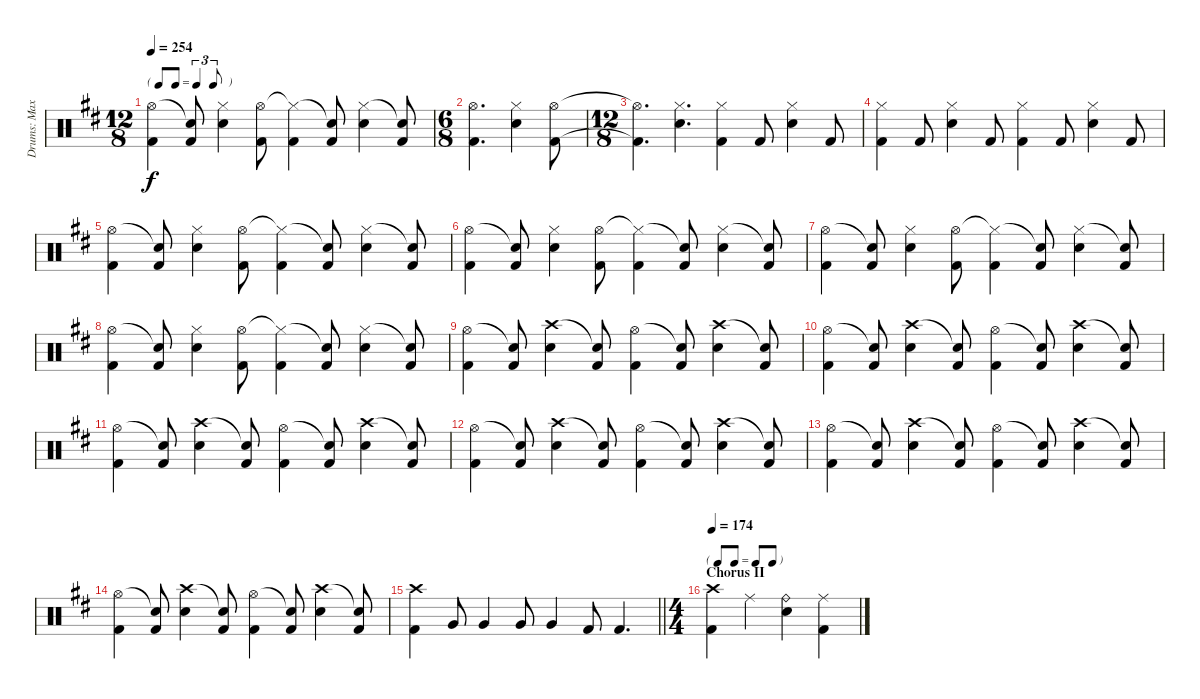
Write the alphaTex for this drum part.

\track ("Drums: Max" "Drums: Max") {instrument percussion}
\staff {score}
\articulation defaults
\ts (12 8)
\tf triplet8th
\tempo 254
\clef neutral
\ks d
("Hi-Hat (open)" "Kick (hit) 2").4{dy f} ("Snare (hit)"{t} "Kick (hit) 2").8 ("Hi-Hat (closed)" "Electric Snare (hit)").4 ("Hi-Hat (open)" "Kick (hit) 2").8 ("Hi-Hat (closed)"{t} "Kick (hit) 2").4 ("Snare (hit)"{t} "Kick (hit) 2").8 ("Hi-Hat (closed)" "Electric Snare (hit)").4 ("Snare (hit)"{t} "Kick (hit) 2").8 |
\ts (6 8)
("Hi-Hat (open)" "Kick (hit) 2").4{d} ("Hi-Hat (closed)" "Electric Snare (hit)").4 ("Hi-Hat (open)" "Kick (hit) 2").8 |
\ts (12 8)
("Hi-Hat (open)"{t} "Kick (hit) 2"{t}).4{d} ("Hi-Hat (closed)" "Electric Snare (hit)").4{d} ("Hi-Hat (closed)" "Kick (hit) 2").4 "Kick (hit) 2".8 ("Hi-Hat (closed)" "Electric Snare (hit)").4 "Kick (hit) 2".8 |
("Hi-Hat (closed)" "Kick (hit) 2").4 "Kick (hit) 2".8 ("Hi-Hat (closed)" "Electric Snare (hit)").4 "Kick (hit) 2".8 ("Hi-Hat (closed)" "Kick (hit) 2").4 "Kick (hit) 2".8 ("Hi-Hat (closed)" "Electric Snare (hit)").4 "Kick (hit) 2".8 |
("Hi-Hat (open)" "Kick (hit) 2").4 ("Snare (hit)"{t} "Kick (hit) 2").8 ("Hi-Hat (closed)" "Electric Snare (hit)").4 ("Hi-Hat (open)" "Kick (hit) 2").8 ("Hi-Hat (closed)"{t} "Kick (hit) 2").4 ("Snare (hit)"{t} "Kick (hit) 2").8 ("Hi-Hat (closed)" "Electric Snare (hit)").4 ("Snare (hit)"{t} "Kick (hit) 2").8 |
("Hi-Hat (open)" "Kick (hit) 2").4 ("Snare (hit)"{t} "Kick (hit) 2").8 ("Hi-Hat (closed)" "Electric Snare (hit)").4 ("Hi-Hat (open)" "Kick (hit) 2").8 ("Hi-Hat (closed)"{t} "Kick (hit) 2").4 ("Snare (hit)"{t} "Kick (hit) 2").8 ("Hi-Hat (closed)" "Electric Snare (hit)").4 ("Snare (hit)"{t} "Kick (hit) 2").8 |
("Hi-Hat (open)" "Kick (hit) 2").4 ("Snare (hit)"{t} "Kick (hit) 2").8 ("Hi-Hat (closed)" "Electric Snare (hit)").4 ("Hi-Hat (open)" "Kick (hit) 2").8 ("Hi-Hat (closed)"{t} "Kick (hit) 2").4 ("Snare (hit)"{t} "Kick (hit) 2").8 ("Hi-Hat (closed)" "Electric Snare (hit)").4 ("Snare (hit)"{t} "Kick (hit) 2").8 |
("Hi-Hat (open)" "Kick (hit) 2").4 ("Snare (hit)"{t} "Kick (hit) 2").8 ("Hi-Hat (closed)" "Electric Snare (hit)").4 ("Hi-Hat (open)" "Kick (hit) 2").8 ("Hi-Hat (closed)"{t} "Kick (hit) 2").4 ("Snare (hit)"{t} "Kick (hit) 2").8 ("Hi-Hat (closed)" "Electric Snare (hit)").4 ("Snare (hit)"{t} "Kick (hit) 2").8 |
("Hi-Hat (open)" "Kick (hit) 2").4 ("Snare (hit)"{t} "Kick (hit) 2").8 ("Crash high (hit)" "Electric Snare (hit)").4 ("Snare (hit)"{t} "Kick (hit) 2").8 ("Hi-Hat (open)" "Kick (hit) 2").4 ("Snare (hit)"{t} "Kick (hit) 2").8 ("Crash high (hit)" "Electric Snare (hit)").4 ("Snare (hit)"{t} "Kick (hit) 2").8 |
("Hi-Hat (open)" "Kick (hit) 2").4 ("Snare (hit)"{t} "Kick (hit) 2").8 ("Crash high (hit)" "Electric Snare (hit)").4 ("Snare (hit)"{t} "Kick (hit) 2").8 ("Hi-Hat (open)" "Kick (hit) 2").4 ("Snare (hit)"{t} "Kick (hit) 2").8 ("Crash high (hit)" "Electric Snare (hit)").4 ("Snare (hit)"{t} "Kick (hit) 2").8 |
("Hi-Hat (open)" "Kick (hit) 2").4 ("Snare (hit)"{t} "Kick (hit) 2").8 ("Crash high (hit)" "Electric Snare (hit)").4 ("Snare (hit)"{t} "Kick (hit) 2").8 ("Hi-Hat (open)" "Kick (hit) 2").4 ("Snare (hit)"{t} "Kick (hit) 2").8 ("Crash high (hit)" "Electric Snare (hit)").4 ("Snare (hit)"{t} "Kick (hit) 2").8 |
("Hi-Hat (open)" "Kick (hit) 2").4 ("Snare (hit)"{t} "Kick (hit) 2").8 ("Crash high (hit)" "Electric Snare (hit)").4 ("Snare (hit)"{t} "Kick (hit) 2").8 ("Hi-Hat (open)" "Kick (hit) 2").4 ("Snare (hit)"{t} "Kick (hit) 2").8 ("Crash high (hit)" "Electric Snare (hit)").4 ("Snare (hit)"{t} "Kick (hit) 2").8 |
("Hi-Hat (open)" "Kick (hit) 2").4 ("Snare (hit)"{t} "Kick (hit) 2").8 ("Crash high (hit)" "Electric Snare (hit)").4 ("Snare (hit)"{t} "Kick (hit) 2").8 ("Hi-Hat (open)" "Kick (hit) 2").4 ("Snare (hit)"{t} "Kick (hit) 2").8 ("Crash high (hit)" "Electric Snare (hit)").4 ("Snare (hit)"{t} "Kick (hit) 2").8 |
("Hi-Hat (open)" "Kick (hit) 2").4 ("Snare (hit)"{t} "Kick (hit) 2").8 ("Crash high (hit)" "Electric Snare (hit)").4 ("Snare (hit)"{t} "Kick (hit) 2").8 ("Hi-Hat (open)" "Kick (hit) 2").4 ("Snare (hit)"{t} "Kick (hit) 2").8 ("Crash high (hit)" "Electric Snare (hit)").4 ("Snare (hit)"{t} "Kick (hit) 2").8 |
\barLineRight lightlight
("Crash high (hit)" "Kick (hit) 2").4 "Very Low Tom (hit)".8 "Very Low Tom (hit)".4 "Very Low Tom (hit)".8 "Very Low Tom (hit)".4 "Kick (hit) 2".8 "Kick (hit) 2".4{d} |
\ts (4 4)
\tf none
\section ("" "Chorus II")
\tempo 174
("Crash high (hit)" "Kick (hit) 2").4 "Ride (middle)".4 ("Ride (bell)" "Electric Snare (hit)").4 ("Ride (middle)" "Kick (hit) 2").4
